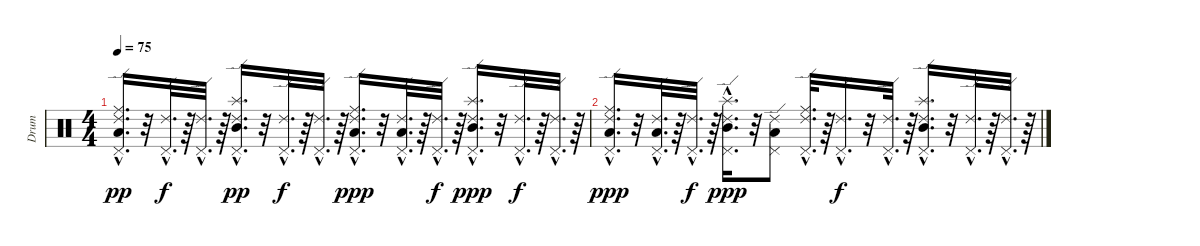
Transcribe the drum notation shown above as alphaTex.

\track ("Drum" "Drum") {instrument percussion}
\staff {score}
\articulation defaults
\ts (4 4)
\tempo 75
\clef neutral
\ks c
("Ride (edge) 2"{hac} "Pedal Hi-Hat (hit)"{hac} "Low Tom (hit)"{hac} "Ride (middle)"{hac}).16{d dy pp} r.32 ("Ride (edge) 2"{hac} "Pedal Hi-Hat (hit)"{hac}).32{d dy f} r.64 ("Ride (edge) 2"{hac} "Pedal Hi-Hat (hit)"{hac}).32{d} r.64 ("Ride (edge) 2"{hac} "Pedal Hi-Hat (hit)"{hac} "Splash (hit)"{hac} "Mid Tom (hit)"{hac}).16{d dy pp} r.32 ("Ride (edge) 2"{hac} "Pedal Hi-Hat (hit)"{hac}).32{d dy f} r.64 ("Ride (edge) 2"{hac} "Pedal Hi-Hat (hit)"{hac}).32{d} r.64 ("Ride (edge) 2"{hac} "Pedal Hi-Hat (hit)"{hac} "Low Tom (hit)"{hac} "Ride (middle)"{hac}).16{d dy ppp} r.32 ("Ride (edge) 2"{hac} "Pedal Hi-Hat (hit)"{hac} "Low Tom (hit)"{hac}).32{d} r.64 ("Ride (edge) 2"{hac} "Pedal Hi-Hat (hit)"{hac}).32{d dy f} r.64 ("Ride (edge) 2"{hac} "Pedal Hi-Hat (hit)"{hac} "Splash (hit)"{hac} "Mid Tom (hit)"{hac}).16{d dy ppp} r.32 ("Ride (edge) 2"{hac} "Pedal Hi-Hat (hit)"{hac}).32{d dy f} r.64 ("Ride (edge) 2"{hac} "Pedal Hi-Hat (hit)"{hac}).32{d} r.64 |
("Ride (edge) 2"{hac} "Pedal Hi-Hat (hit)"{hac} "Low Tom (hit)"{hac} "Ride (middle)"{hac}).16{d dy ppp} r.32 ("Ride (edge) 2"{hac} "Pedal Hi-Hat (hit)"{hac} "Low Tom (hit)"{hac}).32{d} r.64 ("Ride (edge) 2"{hac} "Pedal Hi-Hat (hit)"{hac}).32{d dy f} r.64 ("Ride (edge) 2"{hac} "Pedal Hi-Hat (hit)"{hac} "Splash (hit)"{hac} "Mid Tom (hit)"{hac}).16{d dy ppp} r.32 ("Ride (edge) 2" "Pedal Hi-Hat (hit)" "Low Tom (hit)").8 ("Ride (edge) 2"{hac} "Pedal Hi-Hat (hit)"{hac} "Ride (middle)"{hac}).32{d} r.64 ("Ride (edge) 2"{hac} "Pedal Hi-Hat (hit)"{hac}).16{d dy f} r.32 ("Ride (edge) 2"{hac} "Pedal Hi-Hat (hit)"{hac}).32{d} r.64 ("Ride (edge) 2"{hac} "Pedal Hi-Hat (hit)"{hac} "Splash (hit)"{hac} "Mid Tom (hit)"{hac}).16{d} r.32 ("Ride (edge) 2"{hac} "Pedal Hi-Hat (hit)"{hac}).32{d} r.64 ("Ride (edge) 2"{hac} "Pedal Hi-Hat (hit)"{hac}).32{d} r.64
